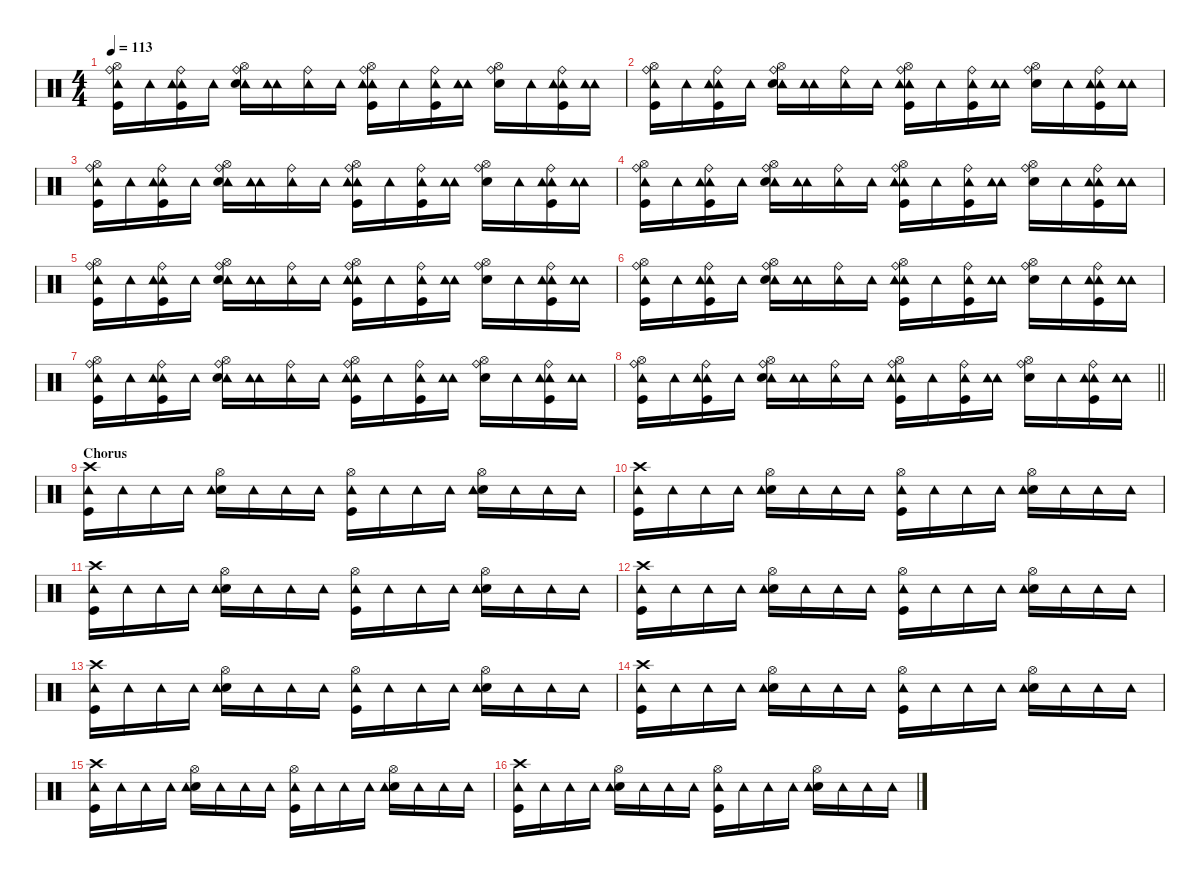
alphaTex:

\defaultSystemsLayout 4
\hideDynamics
\bracketExtendMode nobrackets
\singleTrackTrackNamePolicy hidden
\multiTrackTrackNamePolicy hidden
\firstSystemTrackNameMode fullname
\firstSystemTrackNameOrientation horizontal
\otherSystemsTrackNameOrientation horizontal
\track ("Drums" "drm.") {instrument percussion}
\staff {score}
\articulation defaults
\ts (4 4)
\tempo 113
\clef neutral
\ks c
("Kick (hit)" "Hi-Hat (open)" "Ride (bell)" "Tambourine (hit)").16{dy fff beam Down} "Tambourine (hit)".16{dy pp beam Down} ("Tambourine (hit)" "Kick (hit)" "Ride (bell)" "Tambourine (hit)").16{dy p beam Down} "Tambourine (hit)".16{beam Down} ("Tambourine (hit)" "Snare (hit) 2" "Hi-Hat (open)" "Ride (bell)").16{beam Down} ("Tambourine (hit)" "Tambourine (hit)").16{beam Down} ("Tambourine (hit)" "Ride (bell)").16{beam Down} "Tambourine (hit)".16{dy pp beam Down} ("Tambourine (hit)" "Kick (hit)" "Hi-Hat (open)" "Ride (bell)" "Tambourine (hit)").16{dy p beam Down} "Tambourine (hit)".16{beam Down} ("Kick (hit)" "Ride (bell)" "Tambourine (hit)").16{dy ff beam Down} ("Tambourine (hit)" "Tambourine (hit)").16{dy pp beam Down} ("Snare (hit) 2" "Hi-Hat (open)" "Ride (bell)").16{dy fff beam Down} "Tambourine (hit)".16{dy pp beam Down} ("Tambourine (hit)" "Tambourine (hit)" "Kick (hit)" "Ride (bell)").16{beam Down} ("Tambourine (hit)" "Tambourine (hit)").16{dy p beam Down} |
("Kick (hit)" "Hi-Hat (open)" "Ride (bell)" "Tambourine (hit)").16{dy fff beam Down} "Tambourine (hit)".16{dy pp beam Down} ("Tambourine (hit)" "Kick (hit)" "Ride (bell)" "Tambourine (hit)").16{dy p beam Down} "Tambourine (hit)".16{beam Down} ("Tambourine (hit)" "Snare (hit) 2" "Hi-Hat (open)" "Ride (bell)").16{beam Down} ("Tambourine (hit)" "Tambourine (hit)").16{beam Down} ("Tambourine (hit)" "Ride (bell)").16{beam Down} "Tambourine (hit)".16{dy pp beam Down} ("Tambourine (hit)" "Kick (hit)" "Hi-Hat (open)" "Ride (bell)" "Tambourine (hit)").16{dy p beam Down} "Tambourine (hit)".16{beam Down} ("Kick (hit)" "Ride (bell)" "Tambourine (hit)").16{dy ff beam Down} ("Tambourine (hit)" "Tambourine (hit)").16{dy pp beam Down} ("Snare (hit) 2" "Hi-Hat (open)" "Ride (bell)").16{dy fff beam Down} "Tambourine (hit)".16{dy pp beam Down} ("Tambourine (hit)" "Tambourine (hit)" "Kick (hit)" "Ride (bell)").16{beam Down} ("Tambourine (hit)" "Tambourine (hit)").16{dy p beam Down} |
("Kick (hit)" "Hi-Hat (open)" "Ride (bell)" "Tambourine (hit)").16{dy fff beam Down} "Tambourine (hit)".16{dy pp beam Down} ("Tambourine (hit)" "Kick (hit)" "Ride (bell)" "Tambourine (hit)").16{dy p beam Down} "Tambourine (hit)".16{beam Down} ("Tambourine (hit)" "Snare (hit) 2" "Hi-Hat (open)" "Ride (bell)").16{beam Down} ("Tambourine (hit)" "Tambourine (hit)").16{beam Down} ("Tambourine (hit)" "Ride (bell)").16{beam Down} "Tambourine (hit)".16{dy pp beam Down} ("Tambourine (hit)" "Kick (hit)" "Hi-Hat (open)" "Ride (bell)" "Tambourine (hit)").16{dy p beam Down} "Tambourine (hit)".16{beam Down} ("Kick (hit)" "Ride (bell)" "Tambourine (hit)").16{dy ff beam Down} ("Tambourine (hit)" "Tambourine (hit)").16{dy pp beam Down} ("Snare (hit) 2" "Hi-Hat (open)" "Ride (bell)").16{dy fff beam Down} "Tambourine (hit)".16{dy pp beam Down} ("Tambourine (hit)" "Tambourine (hit)" "Kick (hit)" "Ride (bell)").16{beam Down} ("Tambourine (hit)" "Tambourine (hit)").16{dy p beam Down} |
("Kick (hit)" "Hi-Hat (open)" "Ride (bell)" "Tambourine (hit)").16{dy fff beam Down} "Tambourine (hit)".16{dy pp beam Down} ("Tambourine (hit)" "Kick (hit)" "Ride (bell)" "Tambourine (hit)").16{dy p beam Down} "Tambourine (hit)".16{beam Down} ("Tambourine (hit)" "Snare (hit) 2" "Hi-Hat (open)" "Ride (bell)").16{beam Down} ("Tambourine (hit)" "Tambourine (hit)").16{beam Down} ("Tambourine (hit)" "Ride (bell)").16{beam Down} "Tambourine (hit)".16{dy pp beam Down} ("Tambourine (hit)" "Kick (hit)" "Hi-Hat (open)" "Ride (bell)" "Tambourine (hit)").16{dy p beam Down} "Tambourine (hit)".16{beam Down} ("Kick (hit)" "Ride (bell)" "Tambourine (hit)").16{dy ff beam Down} ("Tambourine (hit)" "Tambourine (hit)").16{dy pp beam Down} ("Snare (hit) 2" "Hi-Hat (open)" "Ride (bell)").16{dy fff beam Down} "Tambourine (hit)".16{dy pp beam Down} ("Tambourine (hit)" "Tambourine (hit)" "Kick (hit)" "Ride (bell)").16{beam Down} ("Tambourine (hit)" "Tambourine (hit)").16{dy p beam Down} |
("Kick (hit)" "Hi-Hat (open)" "Ride (bell)" "Tambourine (hit)").16{dy fff beam Down} "Tambourine (hit)".16{dy pp beam Down} ("Tambourine (hit)" "Kick (hit)" "Ride (bell)" "Tambourine (hit)").16{dy p beam Down} "Tambourine (hit)".16{beam Down} ("Tambourine (hit)" "Snare (hit) 2" "Hi-Hat (open)" "Ride (bell)").16{beam Down} ("Tambourine (hit)" "Tambourine (hit)").16{beam Down} ("Tambourine (hit)" "Ride (bell)").16{beam Down} "Tambourine (hit)".16{dy pp beam Down} ("Tambourine (hit)" "Kick (hit)" "Hi-Hat (open)" "Ride (bell)" "Tambourine (hit)").16{dy p beam Down} "Tambourine (hit)".16{beam Down} ("Kick (hit)" "Ride (bell)" "Tambourine (hit)").16{dy ff beam Down} ("Tambourine (hit)" "Tambourine (hit)").16{dy pp beam Down} ("Snare (hit) 2" "Hi-Hat (open)" "Ride (bell)").16{dy fff beam Down} "Tambourine (hit)".16{dy pp beam Down} ("Tambourine (hit)" "Tambourine (hit)" "Kick (hit)" "Ride (bell)").16{beam Down} ("Tambourine (hit)" "Tambourine (hit)").16{dy p beam Down} |
("Kick (hit)" "Hi-Hat (open)" "Ride (bell)" "Tambourine (hit)").16{dy fff beam Down} "Tambourine (hit)".16{dy pp beam Down} ("Tambourine (hit)" "Kick (hit)" "Ride (bell)" "Tambourine (hit)").16{dy p beam Down} "Tambourine (hit)".16{beam Down} ("Tambourine (hit)" "Snare (hit) 2" "Hi-Hat (open)" "Ride (bell)").16{beam Down} ("Tambourine (hit)" "Tambourine (hit)").16{beam Down} ("Tambourine (hit)" "Ride (bell)").16{beam Down} "Tambourine (hit)".16{dy pp beam Down} ("Tambourine (hit)" "Kick (hit)" "Hi-Hat (open)" "Ride (bell)" "Tambourine (hit)").16{dy p beam Down} "Tambourine (hit)".16{beam Down} ("Kick (hit)" "Ride (bell)" "Tambourine (hit)").16{dy ff beam Down} ("Tambourine (hit)" "Tambourine (hit)").16{dy pp beam Down} ("Snare (hit) 2" "Hi-Hat (open)" "Ride (bell)").16{dy fff beam Down} "Tambourine (hit)".16{dy pp beam Down} ("Tambourine (hit)" "Tambourine (hit)" "Kick (hit)" "Ride (bell)").16{beam Down} ("Tambourine (hit)" "Tambourine (hit)").16{dy p beam Down} |
("Kick (hit)" "Hi-Hat (open)" "Ride (bell)" "Tambourine (hit)").16{dy fff beam Down} "Tambourine (hit)".16{dy pp beam Down} ("Tambourine (hit)" "Kick (hit)" "Ride (bell)" "Tambourine (hit)").16{dy p beam Down} "Tambourine (hit)".16{beam Down} ("Tambourine (hit)" "Snare (hit) 2" "Hi-Hat (open)" "Ride (bell)").16{beam Down} ("Tambourine (hit)" "Tambourine (hit)").16{beam Down} ("Tambourine (hit)" "Ride (bell)").16{beam Down} "Tambourine (hit)".16{dy pp beam Down} ("Tambourine (hit)" "Kick (hit)" "Hi-Hat (open)" "Ride (bell)" "Tambourine (hit)").16{dy p beam Down} "Tambourine (hit)".16{beam Down} ("Kick (hit)" "Ride (bell)" "Tambourine (hit)").16{dy ff beam Down} ("Tambourine (hit)" "Tambourine (hit)").16{dy pp beam Down} ("Snare (hit) 2" "Hi-Hat (open)" "Ride (bell)").16{dy fff beam Down} "Tambourine (hit)".16{dy pp beam Down} ("Tambourine (hit)" "Tambourine (hit)" "Kick (hit)" "Ride (bell)").16{beam Down} ("Tambourine (hit)" "Tambourine (hit)").16{dy p beam Down} |
\barLineRight lightlight
("Kick (hit)" "Hi-Hat (open)" "Ride (bell)" "Tambourine (hit)").16{dy fff beam Down} "Tambourine (hit)".16{dy pp beam Down} ("Tambourine (hit)" "Kick (hit)" "Ride (bell)" "Tambourine (hit)").16{dy p beam Down} "Tambourine (hit)".16{beam Down} ("Tambourine (hit)" "Snare (hit) 2" "Hi-Hat (open)" "Ride (bell)").16{beam Down} ("Tambourine (hit)" "Tambourine (hit)").16{beam Down} ("Tambourine (hit)" "Ride (bell)").16{beam Down} "Tambourine (hit)".16{dy pp beam Down} ("Tambourine (hit)" "Kick (hit)" "Hi-Hat (open)" "Ride (bell)" "Tambourine (hit)").16{dy p beam Down} "Tambourine (hit)".16{beam Down} ("Kick (hit)" "Ride (bell)" "Tambourine (hit)").16{dy ff beam Down} ("Tambourine (hit)" "Tambourine (hit)").16{dy pp beam Down} ("Snare (hit) 2" "Hi-Hat (open)" "Ride (bell)").16{dy fff beam Down} "Tambourine (hit)".16{dy pp beam Down} ("Tambourine (hit)" "Tambourine (hit)" "Kick (hit)" "Ride (bell)").16{beam Down} ("Tambourine (hit)" "Tambourine (hit)").16{dy p beam Down} |
\section ("" "Chorus")
("Kick (hit)" "Crash high (hit)" "Tambourine (hit)").16{dy fff beam Down} "Tambourine (hit)".16{dy p beam Down} "Tambourine (hit)".16{dy mp beam Down} "Tambourine (hit)".16{dy p beam Down} ("Snare (hit) 2" "Hi-Hat (open)" "Tambourine (hit)").16{dy fff beam Down} "Tambourine (hit)".16{dy pp beam Down} "Tambourine (hit)".16{beam Down} "Tambourine (hit)".16{dy p beam Down} ("Kick (hit)" "Hi-Hat (open)" "Tambourine (hit)").16{dy fff beam Down} "Tambourine (hit)".16{dy pp beam Down} "Tambourine (hit)".16{beam Down} "Tambourine (hit)".16{dy p beam Down} ("Snare (hit) 2" "Hi-Hat (open)" "Tambourine (hit)").16{dy fff beam Down} "Tambourine (hit)".16{dy p beam Down} "Tambourine (hit)".16{dy pp beam Down} "Tambourine (hit)".16{dy p beam Down} |
("Kick (hit)" "Crash high (hit)" "Tambourine (hit)").16{dy fff beam Down} "Tambourine (hit)".16{dy p beam Down} "Tambourine (hit)".16{dy mp beam Down} "Tambourine (hit)".16{dy p beam Down} ("Snare (hit) 2" "Hi-Hat (open)" "Tambourine (hit)").16{dy fff beam Down} "Tambourine (hit)".16{dy pp beam Down} "Tambourine (hit)".16{beam Down} "Tambourine (hit)".16{dy p beam Down} ("Kick (hit)" "Hi-Hat (open)" "Tambourine (hit)").16{dy fff beam Down} "Tambourine (hit)".16{dy pp beam Down} "Tambourine (hit)".16{beam Down} "Tambourine (hit)".16{dy p beam Down} ("Snare (hit) 2" "Hi-Hat (open)" "Tambourine (hit)").16{dy fff beam Down} "Tambourine (hit)".16{dy p beam Down} "Tambourine (hit)".16{dy pp beam Down} "Tambourine (hit)".16{dy p beam Down} |
("Kick (hit)" "Crash high (hit)" "Tambourine (hit)").16{dy fff beam Down} "Tambourine (hit)".16{dy p beam Down} "Tambourine (hit)".16{dy mp beam Down} "Tambourine (hit)".16{dy p beam Down} ("Snare (hit) 2" "Hi-Hat (open)" "Tambourine (hit)").16{dy fff beam Down} "Tambourine (hit)".16{dy pp beam Down} "Tambourine (hit)".16{beam Down} "Tambourine (hit)".16{dy p beam Down} ("Kick (hit)" "Hi-Hat (open)" "Tambourine (hit)").16{dy fff beam Down} "Tambourine (hit)".16{dy pp beam Down} "Tambourine (hit)".16{beam Down} "Tambourine (hit)".16{dy p beam Down} ("Snare (hit) 2" "Hi-Hat (open)" "Tambourine (hit)").16{dy fff beam Down} "Tambourine (hit)".16{dy p beam Down} "Tambourine (hit)".16{dy pp beam Down} "Tambourine (hit)".16{dy p beam Down} |
("Kick (hit)" "Crash high (hit)" "Tambourine (hit)").16{dy fff beam Down} "Tambourine (hit)".16{dy p beam Down} "Tambourine (hit)".16{dy mp beam Down} "Tambourine (hit)".16{dy p beam Down} ("Snare (hit) 2" "Hi-Hat (open)" "Tambourine (hit)").16{dy fff beam Down} "Tambourine (hit)".16{dy pp beam Down} "Tambourine (hit)".16{beam Down} "Tambourine (hit)".16{dy p beam Down} ("Kick (hit)" "Hi-Hat (open)" "Tambourine (hit)").16{dy fff beam Down} "Tambourine (hit)".16{dy pp beam Down} "Tambourine (hit)".16{beam Down} "Tambourine (hit)".16{dy p beam Down} ("Snare (hit) 2" "Hi-Hat (open)" "Tambourine (hit)").16{dy fff beam Down} "Tambourine (hit)".16{dy p beam Down} "Tambourine (hit)".16{dy pp beam Down} "Tambourine (hit)".16{dy p beam Down} |
("Kick (hit)" "Crash high (hit)" "Tambourine (hit)").16{dy fff beam Down} "Tambourine (hit)".16{dy p beam Down} "Tambourine (hit)".16{dy mp beam Down} "Tambourine (hit)".16{dy p beam Down} ("Snare (hit) 2" "Hi-Hat (open)" "Tambourine (hit)").16{dy fff beam Down} "Tambourine (hit)".16{dy pp beam Down} "Tambourine (hit)".16{beam Down} "Tambourine (hit)".16{dy p beam Down} ("Kick (hit)" "Hi-Hat (open)" "Tambourine (hit)").16{dy fff beam Down} "Tambourine (hit)".16{dy pp beam Down} "Tambourine (hit)".16{beam Down} "Tambourine (hit)".16{dy p beam Down} ("Snare (hit) 2" "Hi-Hat (open)" "Tambourine (hit)").16{dy fff beam Down} "Tambourine (hit)".16{dy p beam Down} "Tambourine (hit)".16{dy pp beam Down} "Tambourine (hit)".16{dy p beam Down} |
("Kick (hit)" "Crash high (hit)" "Tambourine (hit)").16{dy fff beam Down} "Tambourine (hit)".16{dy p beam Down} "Tambourine (hit)".16{dy mp beam Down} "Tambourine (hit)".16{dy p beam Down} ("Snare (hit) 2" "Hi-Hat (open)" "Tambourine (hit)").16{dy fff beam Down} "Tambourine (hit)".16{dy pp beam Down} "Tambourine (hit)".16{beam Down} "Tambourine (hit)".16{dy p beam Down} ("Kick (hit)" "Hi-Hat (open)" "Tambourine (hit)").16{dy fff beam Down} "Tambourine (hit)".16{dy pp beam Down} "Tambourine (hit)".16{beam Down} "Tambourine (hit)".16{dy p beam Down} ("Snare (hit) 2" "Hi-Hat (open)" "Tambourine (hit)").16{dy fff beam Down} "Tambourine (hit)".16{dy p beam Down} "Tambourine (hit)".16{dy pp beam Down} "Tambourine (hit)".16{dy p beam Down} |
("Kick (hit)" "Crash high (hit)" "Tambourine (hit)").16{dy fff beam Down} "Tambourine (hit)".16{dy p beam Down} "Tambourine (hit)".16{dy mp beam Down} "Tambourine (hit)".16{dy p beam Down} ("Snare (hit) 2" "Hi-Hat (open)" "Tambourine (hit)").16{dy fff beam Down} "Tambourine (hit)".16{dy pp beam Down} "Tambourine (hit)".16{beam Down} "Tambourine (hit)".16{dy p beam Down} ("Kick (hit)" "Hi-Hat (open)" "Tambourine (hit)").16{dy fff beam Down} "Tambourine (hit)".16{dy pp beam Down} "Tambourine (hit)".16{beam Down} "Tambourine (hit)".16{dy p beam Down} ("Snare (hit) 2" "Hi-Hat (open)" "Tambourine (hit)").16{dy fff beam Down} "Tambourine (hit)".16{dy p beam Down} "Tambourine (hit)".16{dy pp beam Down} "Tambourine (hit)".16{dy p beam Down} |
("Kick (hit)" "Crash high (hit)" "Tambourine (hit)").16{dy fff beam Down} "Tambourine (hit)".16{dy p beam Down} "Tambourine (hit)".16{dy mp beam Down} "Tambourine (hit)".16{dy p beam Down} ("Snare (hit) 2" "Hi-Hat (open)" "Tambourine (hit)").16{dy fff beam Down} "Tambourine (hit)".16{dy pp beam Down} "Tambourine (hit)".16{beam Down} "Tambourine (hit)".16{dy p beam Down} ("Kick (hit)" "Hi-Hat (open)" "Tambourine (hit)").16{dy fff beam Down} "Tambourine (hit)".16{dy pp beam Down} "Tambourine (hit)".16{beam Down} "Tambourine (hit)".16{dy p beam Down} ("Snare (hit) 2" "Hi-Hat (open)" "Tambourine (hit)").16{dy fff beam Down} "Tambourine (hit)".16{dy p beam Down} "Tambourine (hit)".16{dy pp beam Down} "Tambourine (hit)".16{dy p beam Down}
